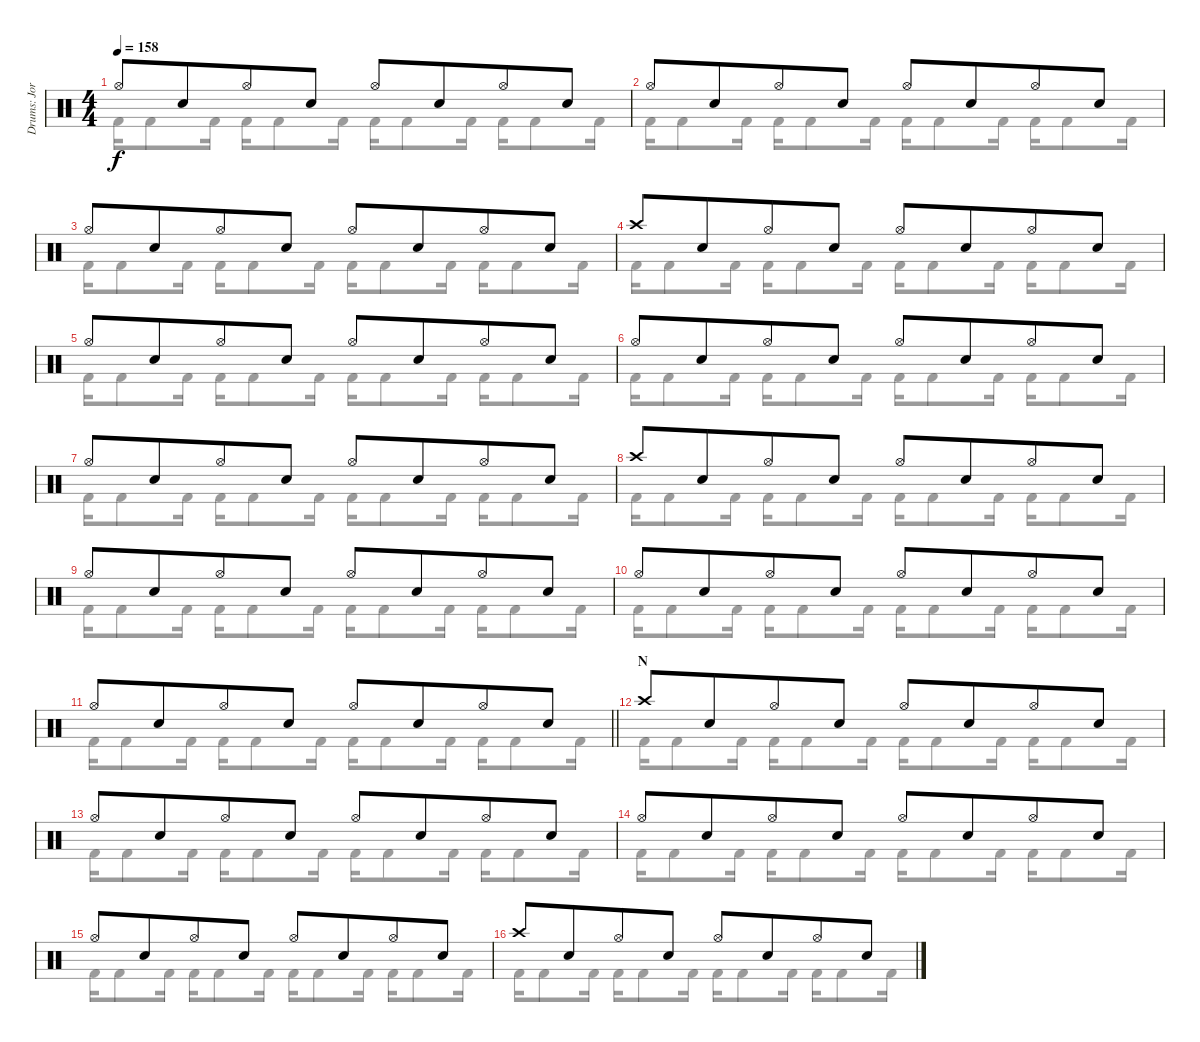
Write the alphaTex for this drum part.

\track ("Drums: Jorg" "Drums: Jor") {instrument percussion}
\staff {score}
\articulation defaults
\voice
\ts (4 4)
\tempo 158
\clef neutral
\ks c "Hi-Hat (open)".8{dy f} "Snare (hit) 2".8{beam merge} "Hi-Hat (open)".8 "Snare (hit) 2".8 "Hi-Hat (open)".8 "Snare (hit) 2".8{beam merge} "Hi-Hat (open)".8 "Snare (hit) 2".8
|
"Hi-Hat (open)".8 "Snare (hit) 2".8{beam merge} "Hi-Hat (open)".8 "Snare (hit) 2".8 "Hi-Hat (open)".8 "Snare (hit) 2".8{beam merge} "Hi-Hat (open)".8 "Snare (hit) 2".8 |
"Hi-Hat (open)".8 "Snare (hit) 2".8{beam merge} "Hi-Hat (open)".8 "Snare (hit) 2".8 "Hi-Hat (open)".8 "Snare (hit) 2".8{beam merge} "Hi-Hat (open)".8 "Snare (hit) 2".8 |
"Crash high (hit)".8 "Snare (hit) 2".8{beam merge} "Hi-Hat (open)".8 "Snare (hit) 2".8 "Hi-Hat (open)".8 "Snare (hit) 2".8{beam merge} "Hi-Hat (open)".8 "Snare (hit) 2".8 |
"Hi-Hat (open)".8 "Snare (hit) 2".8{beam merge} "Hi-Hat (open)".8 "Snare (hit) 2".8 "Hi-Hat (open)".8 "Snare (hit) 2".8{beam merge} "Hi-Hat (open)".8 "Snare (hit) 2".8 |
"Hi-Hat (open)".8 "Snare (hit) 2".8{beam merge} "Hi-Hat (open)".8 "Snare (hit) 2".8 "Hi-Hat (open)".8 "Snare (hit) 2".8{beam merge} "Hi-Hat (open)".8 "Snare (hit) 2".8 |
"Hi-Hat (open)".8 "Snare (hit) 2".8{beam merge} "Hi-Hat (open)".8 "Snare (hit) 2".8 "Hi-Hat (open)".8 "Snare (hit) 2".8{beam merge} "Hi-Hat (open)".8 "Snare (hit) 2".8 |
"Crash high (hit)".8 "Snare (hit) 2".8{beam merge} "Hi-Hat (open)".8 "Snare (hit) 2".8 "Hi-Hat (open)".8 "Snare (hit) 2".8{beam merge} "Hi-Hat (open)".8 "Snare (hit) 2".8 |
"Hi-Hat (open)".8 "Snare (hit) 2".8{beam merge} "Hi-Hat (open)".8 "Snare (hit) 2".8 "Hi-Hat (open)".8 "Snare (hit) 2".8{beam merge} "Hi-Hat (open)".8 "Snare (hit) 2".8 |
"Hi-Hat (open)".8 "Snare (hit) 2".8{beam merge} "Hi-Hat (open)".8 "Snare (hit) 2".8 "Hi-Hat (open)".8 "Snare (hit) 2".8{beam merge} "Hi-Hat (open)".8 "Snare (hit) 2".8 |
\barLineRight lightlight "Hi-Hat (open)".8 "Snare (hit) 2".8{beam merge} "Hi-Hat (open)".8 "Snare (hit) 2".8 "Hi-Hat (open)".8 "Snare (hit) 2".8{beam merge} "Hi-Hat (open)".8 "Snare (hit) 2".8
|
\section ("" "N")
"Crash high (hit)".8 "Snare (hit) 2".8{beam merge} "Hi-Hat (open)".8 "Snare (hit) 2".8 "Hi-Hat (open)".8 "Snare (hit) 2".8{beam merge} "Hi-Hat (open)".8 "Snare (hit) 2".8 |
"Hi-Hat (open)".8 "Snare (hit) 2".8{beam merge} "Hi-Hat (open)".8 "Snare (hit) 2".8 "Hi-Hat (open)".8 "Snare (hit) 2".8{beam merge} "Hi-Hat (open)".8 "Snare (hit) 2".8 |
"Hi-Hat (open)".8 "Snare (hit) 2".8{beam merge} "Hi-Hat (open)".8 "Snare (hit) 2".8 "Hi-Hat (open)".8 "Snare (hit) 2".8{beam merge} "Hi-Hat (open)".8 "Snare (hit) 2".8 |
"Hi-Hat (open)".8 "Snare (hit) 2".8{beam merge} "Hi-Hat (open)".8 "Snare (hit) 2".8 "Hi-Hat (open)".8 "Snare (hit) 2".8{beam merge} "Hi-Hat (open)".8 "Snare (hit) 2".8 |
"Crash high (hit)".8 "Snare (hit) 2".8{beam merge} "Hi-Hat (open)".8 "Snare (hit) 2".8 "Hi-Hat (open)".8 "Snare (hit) 2".8{beam merge} "Hi-Hat (open)".8 "Snare (hit) 2".8
\voice
\clef neutral
\ottava regular
\simile none
\ks c "Kick (hit) 2".16{dy f} "Kick (hit) 2".8 "Kick (hit) 2".16 "Kick (hit) 2".16 "Kick (hit) 2".8 "Kick (hit) 2".16 "Kick (hit) 2".16 "Kick (hit) 2".8 "Kick (hit) 2".16 "Kick (hit) 2".16 "Kick (hit) 2".8 "Kick (hit) 2".16
|
"Kick (hit) 2".16 "Kick (hit) 2".8 "Kick (hit) 2".16 "Kick (hit) 2".16 "Kick (hit) 2".8 "Kick (hit) 2".16 "Kick (hit) 2".16 "Kick (hit) 2".8 "Kick (hit) 2".16 "Kick (hit) 2".16 "Kick (hit) 2".8 "Kick (hit) 2".16 |
"Kick (hit) 2".16 "Kick (hit) 2".8 "Kick (hit) 2".16 "Kick (hit) 2".16 "Kick (hit) 2".8 "Kick (hit) 2".16 "Kick (hit) 2".16 "Kick (hit) 2".8 "Kick (hit) 2".16 "Kick (hit) 2".16 "Kick (hit) 2".8 "Kick (hit) 2".16 |
"Kick (hit) 2".16 "Kick (hit) 2".8 "Kick (hit) 2".16 "Kick (hit) 2".16 "Kick (hit) 2".8 "Kick (hit) 2".16 "Kick (hit) 2".16 "Kick (hit) 2".8 "Kick (hit) 2".16 "Kick (hit) 2".16 "Kick (hit) 2".8 "Kick (hit) 2".16 |
"Kick (hit) 2".16 "Kick (hit) 2".8 "Kick (hit) 2".16 "Kick (hit) 2".16 "Kick (hit) 2".8 "Kick (hit) 2".16 "Kick (hit) 2".16 "Kick (hit) 2".8 "Kick (hit) 2".16 "Kick (hit) 2".16 "Kick (hit) 2".8 "Kick (hit) 2".16 |
"Kick (hit) 2".16 "Kick (hit) 2".8 "Kick (hit) 2".16 "Kick (hit) 2".16 "Kick (hit) 2".8 "Kick (hit) 2".16 "Kick (hit) 2".16 "Kick (hit) 2".8 "Kick (hit) 2".16 "Kick (hit) 2".16 "Kick (hit) 2".8 "Kick (hit) 2".16 |
"Kick (hit) 2".16 "Kick (hit) 2".8 "Kick (hit) 2".16 "Kick (hit) 2".16 "Kick (hit) 2".8 "Kick (hit) 2".16 "Kick (hit) 2".16 "Kick (hit) 2".8 "Kick (hit) 2".16 "Kick (hit) 2".16 "Kick (hit) 2".8 "Kick (hit) 2".16 |
"Kick (hit) 2".16 "Kick (hit) 2".8 "Kick (hit) 2".16 "Kick (hit) 2".16 "Kick (hit) 2".8 "Kick (hit) 2".16 "Kick (hit) 2".16 "Kick (hit) 2".8 "Kick (hit) 2".16 "Kick (hit) 2".16 "Kick (hit) 2".8 "Kick (hit) 2".16 |
"Kick (hit) 2".16 "Kick (hit) 2".8 "Kick (hit) 2".16 "Kick (hit) 2".16 "Kick (hit) 2".8 "Kick (hit) 2".16 "Kick (hit) 2".16 "Kick (hit) 2".8 "Kick (hit) 2".16 "Kick (hit) 2".16 "Kick (hit) 2".8 "Kick (hit) 2".16 |
"Kick (hit) 2".16 "Kick (hit) 2".8 "Kick (hit) 2".16 "Kick (hit) 2".16 "Kick (hit) 2".8 "Kick (hit) 2".16 "Kick (hit) 2".16 "Kick (hit) 2".8 "Kick (hit) 2".16 "Kick (hit) 2".16 "Kick (hit) 2".8 "Kick (hit) 2".16 |
\barLineRight lightlight "Kick (hit) 2".16 "Kick (hit) 2".8 "Kick (hit) 2".16 "Kick (hit) 2".16 "Kick (hit) 2".8 "Kick (hit) 2".16 "Kick (hit) 2".16 "Kick (hit) 2".8 "Kick (hit) 2".16 "Kick (hit) 2".16 "Kick (hit) 2".8 "Kick (hit) 2".16
|
"Kick (hit) 2".16 "Kick (hit) 2".8 "Kick (hit) 2".16 "Kick (hit) 2".16 "Kick (hit) 2".8 "Kick (hit) 2".16 "Kick (hit) 2".16 "Kick (hit) 2".8 "Kick (hit) 2".16 "Kick (hit) 2".16 "Kick (hit) 2".8 "Kick (hit) 2".16 |
"Kick (hit) 2".16 "Kick (hit) 2".8 "Kick (hit) 2".16 "Kick (hit) 2".16 "Kick (hit) 2".8 "Kick (hit) 2".16 "Kick (hit) 2".16 "Kick (hit) 2".8 "Kick (hit) 2".16 "Kick (hit) 2".16 "Kick (hit) 2".8 "Kick (hit) 2".16 |
"Kick (hit) 2".16 "Kick (hit) 2".8 "Kick (hit) 2".16 "Kick (hit) 2".16 "Kick (hit) 2".8 "Kick (hit) 2".16 "Kick (hit) 2".16 "Kick (hit) 2".8 "Kick (hit) 2".16 "Kick (hit) 2".16 "Kick (hit) 2".8 "Kick (hit) 2".16 |
"Kick (hit) 2".16 "Kick (hit) 2".8 "Kick (hit) 2".16 "Kick (hit) 2".16 "Kick (hit) 2".8 "Kick (hit) 2".16 "Kick (hit) 2".16 "Kick (hit) 2".8 "Kick (hit) 2".16 "Kick (hit) 2".16 "Kick (hit) 2".8 "Kick (hit) 2".16 |
"Kick (hit) 2".16 "Kick (hit) 2".8 "Kick (hit) 2".16 "Kick (hit) 2".16 "Kick (hit) 2".8 "Kick (hit) 2".16 "Kick (hit) 2".16 "Kick (hit) 2".8 "Kick (hit) 2".16 "Kick (hit) 2".16 "Kick (hit) 2".8 "Kick (hit) 2".16
